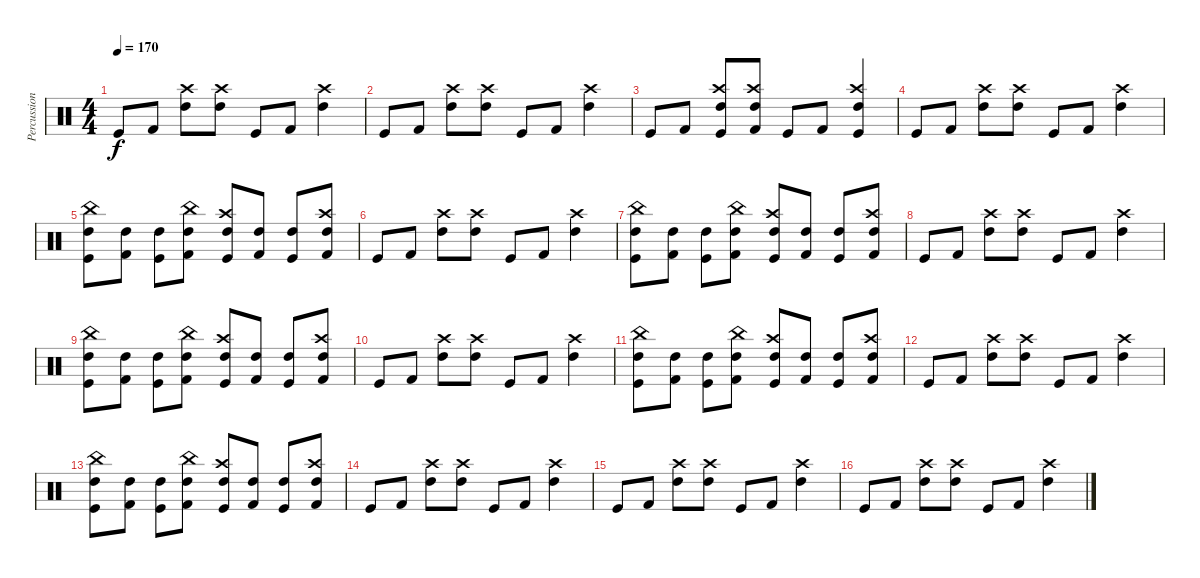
\track ("Percussions" "Percussion") {instrument percussion}
\staff {score}
\articulation defaults
\ts (4 4)
\tempo 170
\clef neutral
\ks c "Kick (hit)".8{dy f} "Kick (hit) 2".8
("Crash high (hit)" "High Tom (hit)").8 ("Crash high (hit)" "High Tom (hit)").8 "Kick (hit)".8 "Kick (hit) 2".8 ("Crash high (hit)" "High Tom (hit)").4 |
"Kick (hit)".8 "Kick (hit) 2".8 ("Crash high (hit)" "High Tom (hit)").8 ("Crash high (hit)" "High Tom (hit)").8 "Kick (hit)".8 "Kick (hit) 2".8 ("Crash high (hit)" "High Tom (hit)").4 |
"Kick (hit)".8 "Kick (hit) 2".8 ("Crash high (hit)" "Kick (hit)" "High Tom (hit)").8 ("Crash high (hit)" "Kick (hit) 2" "High Tom (hit)").8 "Kick (hit)".8 "Kick (hit) 2".8 ("Crash high (hit)" "Kick (hit)" "High Tom (hit)").4 |
"Kick (hit)".8 "Kick (hit) 2".8 ("Crash high (hit)" "High Tom (hit)").8 ("Crash high (hit)" "High Tom (hit)").8 "Kick (hit)".8 "Kick (hit) 2".8 ("Crash high (hit)" "High Tom (hit)").4 |
("China (hit)" "Kick (hit)" "High Tom (hit)").8 ("Kick (hit) 2" "High Tom (hit)").8 ("Kick (hit)" "High Tom (hit)").8 ("China (hit)" "Kick (hit) 2" "High Tom (hit)").8 ("Crash high (hit)" "Kick (hit)" "High Tom (hit)").8 ("Kick (hit) 2" "High Tom (hit)").8 ("Kick (hit)" "High Tom (hit)").8 ("Crash high (hit)" "Kick (hit) 2" "High Tom (hit)").8 |
"Kick (hit)".8 "Kick (hit) 2".8 ("Crash high (hit)" "High Tom (hit)").8 ("Crash high (hit)" "High Tom (hit)").8 "Kick (hit)".8 "Kick (hit) 2".8 ("Crash high (hit)" "High Tom (hit)").4 |
("China (hit)" "Kick (hit)" "High Tom (hit)").8 ("Kick (hit) 2" "High Tom (hit)").8 ("Kick (hit)" "High Tom (hit)").8 ("China (hit)" "Kick (hit) 2" "High Tom (hit)").8 ("Crash high (hit)" "Kick (hit)" "High Tom (hit)").8 ("Kick (hit) 2" "High Tom (hit)").8 ("Kick (hit)" "High Tom (hit)").8 ("Crash high (hit)" "Kick (hit) 2" "High Tom (hit)").8 |
"Kick (hit)".8 "Kick (hit) 2".8 ("Crash high (hit)" "High Tom (hit)").8 ("Crash high (hit)" "High Tom (hit)").8 "Kick (hit)".8 "Kick (hit) 2".8 ("Crash high (hit)" "High Tom (hit)").4 |
("China (hit)" "Kick (hit)" "High Tom (hit)").8 ("Kick (hit) 2" "High Tom (hit)").8 ("Kick (hit)" "High Tom (hit)").8 ("China (hit)" "Kick (hit) 2" "High Tom (hit)").8 ("Crash high (hit)" "Kick (hit)" "High Tom (hit)").8 ("Kick (hit) 2" "High Tom (hit)").8 ("Kick (hit)" "High Tom (hit)").8 ("Crash high (hit)" "Kick (hit) 2" "High Tom (hit)").8 |
"Kick (hit)".8 "Kick (hit) 2".8 ("Crash high (hit)" "High Tom (hit)").8 ("Crash high (hit)" "High Tom (hit)").8 "Kick (hit)".8 "Kick (hit) 2".8 ("Crash high (hit)" "High Tom (hit)").4 |
("China (hit)" "Kick (hit)" "High Tom (hit)").8 ("Kick (hit) 2" "High Tom (hit)").8 ("Kick (hit)" "High Tom (hit)").8 ("China (hit)" "Kick (hit) 2" "High Tom (hit)").8 ("Crash high (hit)" "Kick (hit)" "High Tom (hit)").8 ("Kick (hit) 2" "High Tom (hit)").8 ("Kick (hit)" "High Tom (hit)").8 ("Crash high (hit)" "Kick (hit) 2" "High Tom (hit)").8 |
"Kick (hit)".8 "Kick (hit) 2".8 ("Crash high (hit)" "High Tom (hit)").8 ("Crash high (hit)" "High Tom (hit)").8 "Kick (hit)".8 "Kick (hit) 2".8 ("Crash high (hit)" "High Tom (hit)").4 |
("China (hit)" "Kick (hit)" "High Tom (hit)").8 ("Kick (hit) 2" "High Tom (hit)").8 ("Kick (hit)" "High Tom (hit)").8 ("China (hit)" "Kick (hit) 2" "High Tom (hit)").8 ("Crash high (hit)" "Kick (hit)" "High Tom (hit)").8 ("Kick (hit) 2" "High Tom (hit)").8 ("Kick (hit)" "High Tom (hit)").8 ("Crash high (hit)" "Kick (hit) 2" "High Tom (hit)").8 |
"Kick (hit)".8 "Kick (hit) 2".8 ("Crash high (hit)" "High Tom (hit)").8 ("Crash high (hit)" "High Tom (hit)").8 "Kick (hit)".8 "Kick (hit) 2".8 ("Crash high (hit)" "High Tom (hit)").4 |
"Kick (hit)".8 "Kick (hit) 2".8 ("Crash high (hit)" "High Tom (hit)").8 ("Crash high (hit)" "High Tom (hit)").8 "Kick (hit)".8 "Kick (hit) 2".8 ("Crash high (hit)" "High Tom (hit)").4 |
"Kick (hit)".8 "Kick (hit) 2".8 ("Crash high (hit)" "High Tom (hit)").8 ("Crash high (hit)" "High Tom (hit)").8 "Kick (hit)".8 "Kick (hit) 2".8 ("Crash high (hit)" "High Tom (hit)").4
